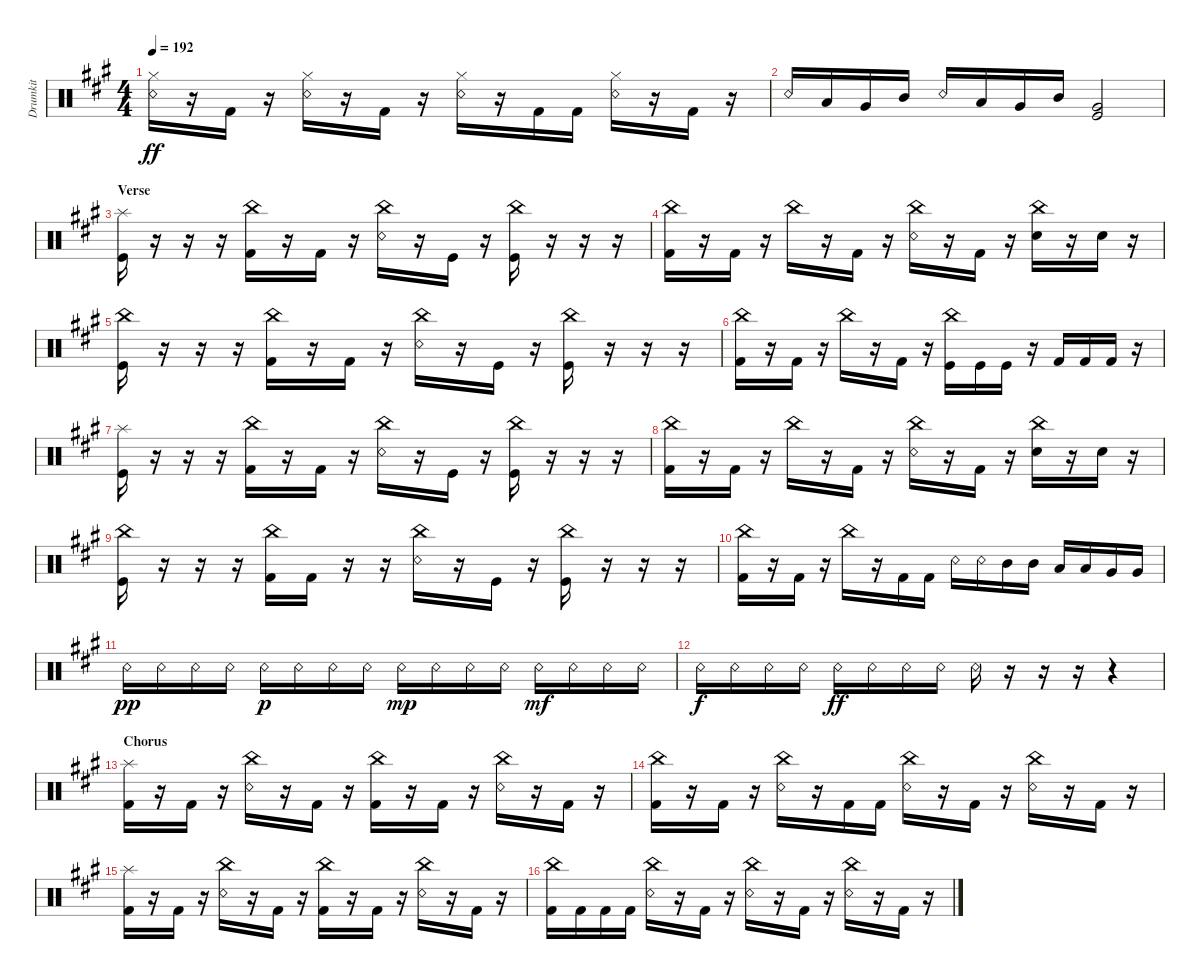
\track ("Drumkit" "Drumkit") {instrument percussion}
\staff {score}
\articulation defaults
\ts (4 4)
\tempo 192
\clef neutral
\ks a
("Snare (rim shot)" "Hi-Hat (closed)").16{dy ff} r.16 "Kick (hit) 2".16 r.16 ("Snare (rim shot)" "Hi-Hat (closed)").16 r.16 "Kick (hit) 2".16 r.16 ("Snare (rim shot)" "Hi-Hat (closed)").16 r.16 "Kick (hit) 2".16 "Kick (hit) 2".16 ("Snare (rim shot)" "Hi-Hat (closed)").16 r.16 "Kick (hit) 2".16 r.16 |
"Snare (rim shot)".16 "Low Tom (hit)".16 "Very Low Tom (hit)".16 "Mid Tom (hit)".16 "Snare (rim shot)".16 "Low Tom (hit)".16 "Very Low Tom (hit)".16 "Mid Tom (hit)".16 ("Very Low Tom (hit)" "Kick (hit)").2 |
\section ("" "Verse")
("Kick (hit)" "Splash (hit)").16 r.16 r.16 r.16 ("China (hit)" "Kick (hit) 2").16 r.16 "Kick (hit) 2".16 r.16 ("China (hit)" "Snare (rim shot)").16 r.16 "Kick (hit)".16 r.16 ("Kick (hit)" "China (hit)").16 r.16 r.16 r.16 |
("Kick (hit) 2" "China (hit)").16 r.16 "Kick (hit) 2".16 r.16 "China (hit)".16 r.16 "Kick (hit) 2".16 r.16 ("China (hit)" "Snare (rim shot)").16 r.16 "Kick (hit) 2".16 r.16 ("China (hit)" "Snare (hit) 2").16 r.16 "Snare (hit) 2".16 r.16 |
("China (hit)" "Kick (hit)").16 r.16 r.16 r.16 ("China (hit)" "Kick (hit) 2").16 r.16 "Kick (hit) 2".16 r.16 ("China (hit)" "Snare (rim shot)").16 r.16 "Kick (hit)".16 r.16 ("Kick (hit)" "China (hit)").16 r.16 r.16 r.16 |
("Kick (hit) 2" "China (hit)").16 r.16 "Kick (hit) 2".16 r.16 "China (hit)".16 r.16 "Kick (hit) 2".16 r.16 ("Kick (hit)" "China (hit)").16 "Kick (hit)".16 "Kick (hit)".16 r.16 "Kick (hit) 2".16 "Kick (hit) 2".16 "Kick (hit) 2".16 r.16 |
("Kick (hit)" "Splash (hit)").16 r.16 r.16 r.16 ("China (hit)" "Kick (hit) 2").16 r.16 "Kick (hit) 2".16 r.16 ("China (hit)" "Snare (rim shot)").16 r.16 "Kick (hit)".16 r.16 ("Kick (hit)" "China (hit)").16 r.16 r.16 r.16 |
("Kick (hit) 2" "China (hit)").16 r.16 "Kick (hit) 2".16 r.16 "China (hit)".16 r.16 "Kick (hit) 2".16 r.16 ("China (hit)" "Snare (rim shot)").16 r.16 "Kick (hit) 2".16 r.16 ("China (hit)" "Snare (hit) 2").16 r.16 "Snare (hit) 2".16 r.16 |
("China (hit)" "Kick (hit)").16 r.16 r.16 r.16 ("China (hit)" "Kick (hit) 2").16 "Kick (hit) 2".16 r.16 r.16 ("China (hit)" "Snare (rim shot)").16 r.16 "Kick (hit)".16 r.16 ("Kick (hit)" "China (hit)").16 r.16 r.16 r.16 |
("Kick (hit) 2" "China (hit)").16 r.16 "Kick (hit) 2".16 r.16 "China (hit)".16 r.16 "Kick (hit) 2".16 "Kick (hit) 2".16 "Snare (rim shot)".16 "Snare (rim shot)".16 "Mid Tom (hit)".16 "Mid Tom (hit)".16 "Low Tom (hit)".16 "Low Tom (hit)".16 "Very Low Tom (hit)".16 "Very Low Tom (hit)".16 |
"Snare (rim shot)".16{dy pp} "Snare (rim shot)".16 "Snare (rim shot)".16 "Snare (rim shot)".16 "Snare (rim shot)".16{dy p} "Snare (rim shot)".16 "Snare (rim shot)".16 "Snare (rim shot)".16 "Snare (rim shot)".16{dy mp} "Snare (rim shot)".16 "Snare (rim shot)".16 "Snare (rim shot)".16 "Snare (rim shot)".16{dy mf} "Snare (rim shot)".16 "Snare (rim shot)".16 "Snare (rim shot)".16 |
"Snare (rim shot)".16{dy f} "Snare (rim shot)".16 "Snare (rim shot)".16 "Snare (rim shot)".16 "Snare (rim shot)".16{dy ff} "Snare (rim shot)".16 "Snare (rim shot)".16 "Snare (rim shot)".16 "Snare (rim shot)".16 r.16 r.16 r.16 r.4 |
\section ("" "Chorus")
("Kick (hit) 2" "Splash (hit)").16 r.16 "Kick (hit) 2".16 r.16 ("China (hit)" "Snare (rim shot)").16 r.16 "Kick (hit) 2".16 r.16 ("China (hit)" "Kick (hit) 2").16 r.16 "Kick (hit) 2".16 r.16 ("China (hit)" "Snare (rim shot)").16 r.16 "Kick (hit) 2".16 r.16 |
("Kick (hit) 2" "China (hit)").16 r.16 "Kick (hit) 2".16 r.16 ("China (hit)" "Snare (rim shot)").16 r.16 "Kick (hit) 2".16 "Kick (hit) 2".16 ("China (hit)" "Snare (rim shot)").16 r.16 "Kick (hit) 2".16 r.16 ("China (hit)" "Snare (rim shot)").16 r.16 "Kick (hit) 2".16 r.16 |
("Kick (hit) 2" "Splash (hit)").16 r.16 "Kick (hit) 2".16 r.16 ("China (hit)" "Snare (rim shot)").16 r.16 "Kick (hit) 2".16 r.16 ("China (hit)" "Kick (hit) 2").16 r.16 "Kick (hit) 2".16 r.16 ("China (hit)" "Snare (rim shot)").16 r.16 "Kick (hit) 2".16 r.16 |
("Kick (hit) 2" "China (hit)").16 "Kick (hit) 2".16 "Kick (hit) 2".16 "Kick (hit) 2".16 ("China (hit)" "Snare (rim shot)").16 r.16 "Kick (hit) 2".16 r.16 ("China (hit)" "Snare (rim shot)").16 r.16 "Kick (hit) 2".16 r.16 ("China (hit)" "Snare (rim shot)").16 r.16 "Kick (hit) 2".16 r.16
